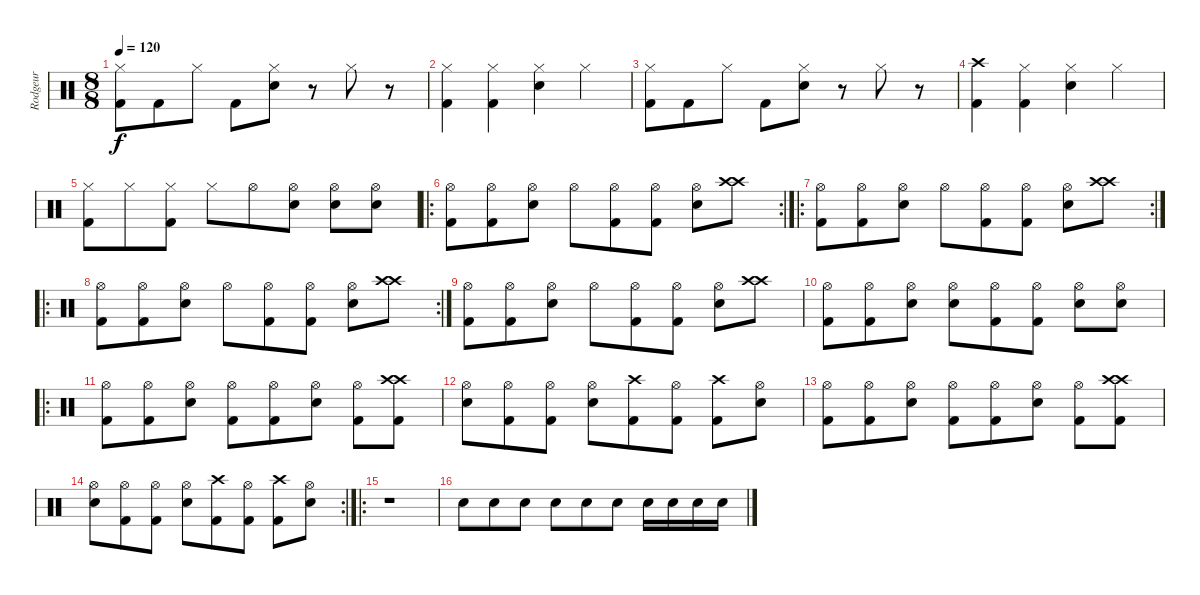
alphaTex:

\track ("Rodgeur" "Rodgeur") {instrument percussion}
\staff {score}
\articulation defaults
\ts (8 8)
\tempo 120
\clef neutral
\ks c
("Hi-Hat (closed)" "Kick (hit) 2").8{dy f} "Kick (hit) 2".8 "Hi-Hat (closed)".8 "Kick (hit) 2".8 ("Hi-Hat (closed)" "Electric Snare (hit)").8 r.8 "Hi-Hat (closed)".8 r.8 |
("Hi-Hat (closed)" "Kick (hit) 2").4 ("Hi-Hat (closed)" "Kick (hit) 2").4 ("Hi-Hat (closed)" "Electric Snare (hit)").4 "Hi-Hat (closed)".4 |
("Hi-Hat (closed)" "Kick (hit) 2").8 "Kick (hit) 2".8 "Hi-Hat (closed)".8 "Kick (hit) 2".8 ("Hi-Hat (closed)" "Electric Snare (hit)").8 r.8 "Hi-Hat (closed)".8 r.8 |
("Crash high (hit)" "Kick (hit) 2").4 ("Hi-Hat (closed)" "Kick (hit) 2").4 ("Hi-Hat (closed)" "Electric Snare (hit)").4 "Hi-Hat (closed)".4 |
("Hi-Hat (closed)" "Kick (hit) 2").8 "Hi-Hat (closed)".8 ("Hi-Hat (closed)" "Kick (hit) 2").8 "Hi-Hat (closed)".8 "Hi-Hat (open)".8 ("Hi-Hat (open)" "Electric Snare (hit)").8 ("Hi-Hat (open)" "Electric Snare (hit)").8 ("Hi-Hat (open)" "Electric Snare (hit)").8 |
\ro
\rc 2
("Hi-Hat (open)" "Kick (hit) 2").8 ("Hi-Hat (open)" "Kick (hit) 2").8 ("Hi-Hat (open)" "Electric Snare (hit)").8 "Hi-Hat (open)".8 ("Hi-Hat (open)" "Kick (hit) 2").8 ("Hi-Hat (open)" "Kick (hit) 2").8 ("Hi-Hat (open)" "Electric Snare (hit)").8 ("Crash high (hit)" "Crash high (hit)").8 |
\ro
\rc 2
("Hi-Hat (open)" "Kick (hit) 2").8 ("Hi-Hat (open)" "Kick (hit) 2").8 ("Hi-Hat (open)" "Electric Snare (hit)").8 "Hi-Hat (open)".8 ("Hi-Hat (open)" "Kick (hit) 2").8 ("Hi-Hat (open)" "Kick (hit) 2").8 ("Hi-Hat (open)" "Electric Snare (hit)").8 ("Crash high (hit)" "Crash high (hit)").8 |
\ro
\rc 2
("Hi-Hat (open)" "Kick (hit) 2").8 ("Hi-Hat (open)" "Kick (hit) 2").8 ("Hi-Hat (open)" "Electric Snare (hit)").8 "Hi-Hat (open)".8 ("Hi-Hat (open)" "Kick (hit) 2").8 ("Hi-Hat (open)" "Kick (hit) 2").8 ("Hi-Hat (open)" "Electric Snare (hit)").8 ("Crash high (hit)" "Crash high (hit)").8 |
("Hi-Hat (open)" "Kick (hit) 2").8 ("Hi-Hat (open)" "Kick (hit) 2").8 ("Hi-Hat (open)" "Electric Snare (hit)").8 "Hi-Hat (open)".8 ("Hi-Hat (open)" "Kick (hit) 2").8 ("Hi-Hat (open)" "Kick (hit) 2").8 ("Hi-Hat (open)" "Electric Snare (hit)").8 ("Crash high (hit)" "Crash high (hit)").8 |
("Hi-Hat (open)" "Kick (hit) 2").8 ("Hi-Hat (open)" "Kick (hit) 2").8 ("Hi-Hat (open)" "Electric Snare (hit)").8 ("Hi-Hat (open)" "Electric Snare (hit)").8 ("Hi-Hat (open)" "Kick (hit) 2").8 ("Hi-Hat (open)" "Kick (hit) 2").8 ("Hi-Hat (open)" "Electric Snare (hit)").8 ("Hi-Hat (open)" "Electric Snare (hit)").8 |
\ro
("Hi-Hat (open)" "Kick (hit) 2").8 ("Hi-Hat (open)" "Kick (hit) 2").8 ("Hi-Hat (open)" "Electric Snare (hit)").8 ("Hi-Hat (open)" "Kick (hit) 2").8 ("Hi-Hat (open)" "Kick (hit) 2").8 ("Hi-Hat (open)" "Electric Snare (hit)").8 ("Hi-Hat (open)" "Kick (hit) 2").8 ("Crash high (hit)" "Crash high (hit)" "Kick (hit) 2").8 |
("Hi-Hat (open)" "Electric Snare (hit)").8 ("Hi-Hat (open)" "Kick (hit) 2").8 ("Hi-Hat (open)" "Kick (hit) 2").8 ("Hi-Hat (open)" "Electric Snare (hit)").8 ("Crash high (hit)" "Kick (hit) 2").8 ("Hi-Hat (open)" "Kick (hit) 2").8 ("Crash high (hit)" "Kick (hit) 2").8 ("Hi-Hat (open)" "Electric Snare (hit)").8 |
("Hi-Hat (open)" "Kick (hit) 2").8 ("Hi-Hat (open)" "Kick (hit) 2").8 ("Hi-Hat (open)" "Electric Snare (hit)").8 ("Hi-Hat (open)" "Kick (hit) 2").8 ("Hi-Hat (open)" "Kick (hit) 2").8 ("Hi-Hat (open)" "Electric Snare (hit)").8 ("Hi-Hat (open)" "Kick (hit) 2").8 ("Crash high (hit)" "Crash high (hit)" "Kick (hit) 2").8 |
\rc 2
("Hi-Hat (open)" "Electric Snare (hit)").8 ("Hi-Hat (open)" "Kick (hit) 2").8 ("Hi-Hat (open)" "Kick (hit) 2").8 ("Hi-Hat (open)" "Electric Snare (hit)").8 ("Crash high (hit)" "Kick (hit) 2").8 ("Hi-Hat (open)" "Kick (hit) 2").8 ("Crash high (hit)" "Kick (hit) 2").8 ("Hi-Hat (open)" "Electric Snare (hit)").8 |
\ro
r.1 |
"Electric Snare (hit)".8 "Electric Snare (hit)".8 "Electric Snare (hit)".8 "Electric Snare (hit)".8 "Electric Snare (hit)".8 "Electric Snare (hit)".8 "Electric Snare (hit)".16 "Electric Snare (hit)".16 "Electric Snare (hit)".16 "Electric Snare (hit)".16
